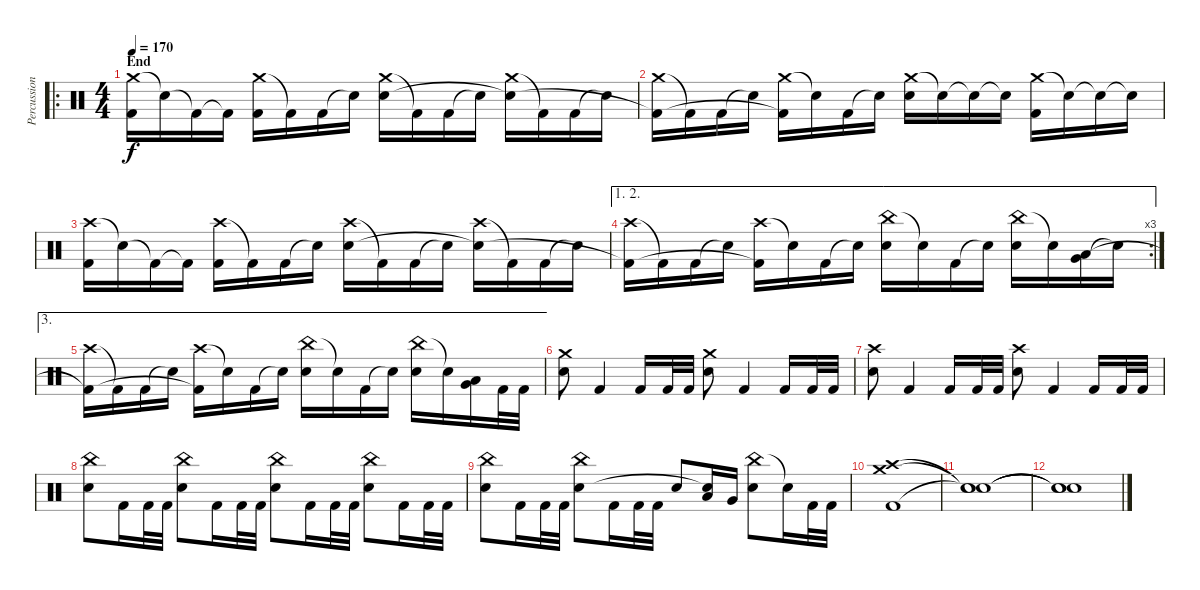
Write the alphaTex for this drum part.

\track ("Percussion" "Percussion") {instrument percussion}
\staff {score}
\articulation defaults
\ro
\ts (4 4)
\section ("" "End")
\tempo 170
\clef neutral
\ks c
("Crash medium (hit)" "Kick (hit) 2").16{dy f} "Snare (hit)"{t}.16 "Kick (hit) 2"{t}.16 "Kick (hit) 2"{t}.16 ("Crash medium (hit)" "Kick (hit) 2").16 "Kick (hit) 2"{t}.16 "Kick (hit) 2".16 "Snare (hit)"{t}.16 ("Crash medium (hit)" "Electric Snare (hit)").16 "Kick (hit) 2"{t}.16 "Kick (hit) 2".16 "Snare (hit)"{t}.16 ("Crash medium (hit)" "Snare (hit)"{t}).16 "Kick (hit) 2"{t}.16 "Kick (hit) 2".16 "Snare (hit)"{t}.16 |
("Crash medium (hit)" "Kick (hit) 2"{t}).16 "Kick (hit) 2"{t}.16 "Kick (hit) 2".16 "Snare (hit)"{t}.16 ("Crash medium (hit)" "Kick (hit) 2"{t}).16 "Snare (hit)"{t}.16 "Kick (hit) 2".16 "Snare (hit)"{t}.16 ("Crash medium (hit)" "Electric Snare (hit)").16 "Snare (hit)"{t}.16 "Snare (hit)"{t}.16 "Snare (hit)"{t}.16 ("Crash medium (hit)" "Kick (hit) 2").16 "Snare (hit)"{t}.16 "Snare (hit)"{t}.16 "Snare (hit)"{t}.16 |
("Crash high (hit)" "Kick (hit) 2").16 "Snare (hit)"{t}.16 "Kick (hit) 2"{t}.16 "Kick (hit) 2"{t}.16 ("Crash high (hit)" "Kick (hit) 2").16 "Kick (hit) 2"{t}.16 "Kick (hit) 2".16 "Snare (hit)"{t}.16 ("Crash high (hit)" "Electric Snare (hit)").16 "Kick (hit) 2"{t}.16 "Kick (hit) 2".16 "Snare (hit)"{t}.16 ("Crash high (hit)" "Snare (hit)"{t}).16 "Kick (hit) 2"{t}.16 "Kick (hit) 2".16 "Snare (hit)"{t}.16 |
\ae (1 2)
\rc 3
("Crash high (hit)" "Kick (hit) 2"{t}).16 "Kick (hit) 2"{t}.16 "Kick (hit) 2".16 "Snare (hit)"{t}.16 ("Crash high (hit)" "Kick (hit) 2"{t}).16 "Snare (hit)"{t}.16 "Kick (hit) 2".16 "Snare (hit)"{t}.16 ("China (hit)" "Electric Snare (hit)").16 "Snare (hit)"{t}.16 "Kick (hit) 2".16 "Snare (hit)"{t}.16 ("China (hit)" "Electric Snare (hit)").16 "Electric Snare (hit)"{t}.16 ("Very Low Tom (hit)" "Low Tom (hit)").16 "Snare (hit)"{t}.16 |
\ae 3
("Crash high (hit)" "Kick (hit) 2"{t}).16 "Kick (hit) 2"{t}.16 "Kick (hit) 2".16 "Snare (hit)"{t}.16 ("Crash high (hit)" "Kick (hit) 2"{t}).16 "Snare (hit)"{t}.16 "Kick (hit) 2".16 "Snare (hit)"{t}.16 ("China (hit)" "Electric Snare (hit)").16 "Snare (hit)"{t}.16 "Kick (hit) 2".16 "Snare (hit)"{t}.16 ("China (hit)" "Electric Snare (hit)").16 "Electric Snare (hit)"{t}.16 ("Very Low Tom (hit)" "Low Tom (hit)").16 "Kick (hit) 2".32 "Kick (hit) 2".32 |
("Crash medium (hit)" "Electric Snare (hit)").8 "Kick (hit) 2".4 "Kick (hit) 2".16 "Kick (hit) 2".32 "Kick (hit) 2".32 ("Crash medium (hit)" "Electric Snare (hit)").8 "Kick (hit) 2".4 "Kick (hit) 2".16 "Kick (hit) 2".32 "Kick (hit) 2".32 |
("Crash high (hit)" "Electric Snare (hit)").8 "Kick (hit) 2".4 "Kick (hit) 2".16 "Kick (hit) 2".32 "Kick (hit) 2".32 ("Crash high (hit)" "Electric Snare (hit)").8 "Kick (hit) 2".4 "Kick (hit) 2".16 "Kick (hit) 2".32 "Kick (hit) 2".32 |
("China (hit)" "Electric Snare (hit)").8 "Kick (hit) 2".16 "Kick (hit) 2".32 "Kick (hit) 2".32 ("China (hit)" "Electric Snare (hit)").8 "Kick (hit) 2".16 "Kick (hit) 2".32 "Kick (hit) 2".32 ("China (hit)" "Electric Snare (hit)").8 "Kick (hit) 2".16 "Kick (hit) 2".32 "Kick (hit) 2".32 ("China (hit)" "Electric Snare (hit)").8 "Kick (hit) 2".16 "Kick (hit) 2".32 "Kick (hit) 2".32 |
("China (hit)" "Electric Snare (hit)").8 "Kick (hit) 2".16 "Kick (hit) 2".32 "Kick (hit) 2".32 ("China (hit)" "Electric Snare (hit)").8 "Kick (hit) 2".16 "Kick (hit) 2".32 "Kick (hit) 2".32 "Electric Snare (hit)".8 ("Low Tom (hit)" "Snare (hit)"{t}).16 "Very Low Tom (hit)".16 ("China (hit)" "Electric Snare (hit)").8 "Snare (hit)"{t}.16 "Kick (hit) 2".32 "Kick (hit) 2".32 |
("Crash medium (hit)" "Crash high (hit)" "Kick (hit) 2").1 |
("Snare (hit)"{t} "Snare (hit)"{t} "Snare (hit)"{t}).1 |
("Snare (hit)"{t} "Snare (hit)"{t} "Snare (hit)"{t}).1
